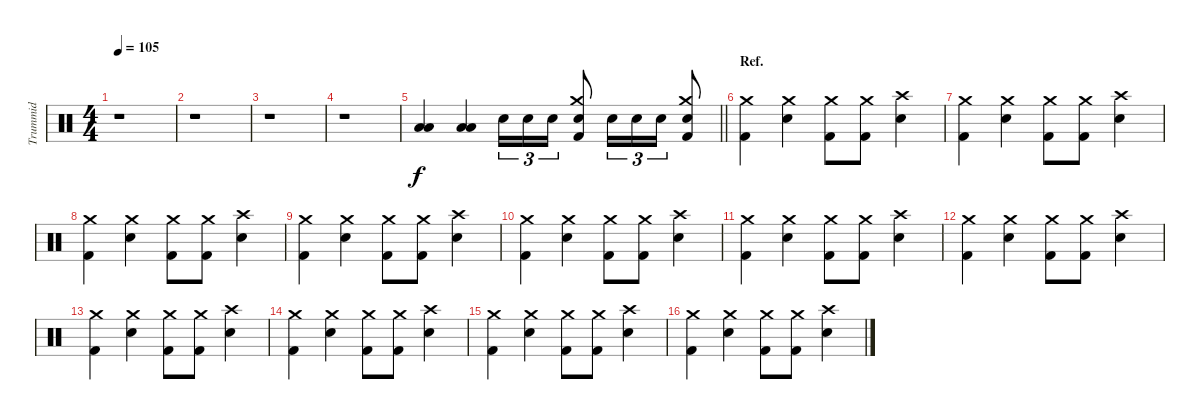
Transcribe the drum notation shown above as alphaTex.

\track ("Trummid" "Trummid") {instrument percussion}
\staff {score}
\articulation defaults
\ts (4 4)
\tempo 105
\clef neutral
\ks c
r.1{dy f} |
r.1 |
r.1 |
r.1 |
\barLineRight lightlight
("Low Tom (hit)" "Low Floor Tom (hit)").4 ("Low Tom (hit)" "Low Floor Tom (hit)").4 "Electric Snare (hit)".16{tu (3 2)} "Electric Snare (hit)".16{tu (3 2)} "Electric Snare (hit)".16{tu (3 2)} ("Crash medium (hit)" "Electric Snare (hit)" "Kick (hit) 2").8 "Electric Snare (hit)".16{tu (3 2)} "Electric Snare (hit)".16{tu (3 2)} "Electric Snare (hit)".16{tu (3 2)} ("Crash medium (hit)" "Electric Snare (hit)" "Kick (hit) 2").8 |
\section ("" "Ref.")
("Crash medium (hit)" "Kick (hit) 2").4 ("Crash medium (hit)" "Electric Snare (hit)").4 ("Crash medium (hit)" "Kick (hit) 2").8 ("Crash medium (hit)" "Kick (hit) 2").8 ("Crash high (hit)" "Electric Snare (hit)").4 |
("Crash medium (hit)" "Kick (hit) 2").4 ("Crash medium (hit)" "Electric Snare (hit)").4 ("Crash medium (hit)" "Kick (hit) 2").8 ("Crash medium (hit)" "Kick (hit) 2").8 ("Crash high (hit)" "Electric Snare (hit)").4 |
("Crash medium (hit)" "Kick (hit) 2").4 ("Crash medium (hit)" "Electric Snare (hit)").4 ("Crash medium (hit)" "Kick (hit) 2").8 ("Crash medium (hit)" "Kick (hit) 2").8 ("Crash high (hit)" "Electric Snare (hit)").4 |
("Crash medium (hit)" "Kick (hit) 2").4 ("Crash medium (hit)" "Electric Snare (hit)").4 ("Crash medium (hit)" "Kick (hit) 2").8 ("Crash medium (hit)" "Kick (hit) 2").8 ("Crash high (hit)" "Electric Snare (hit)").4 |
("Crash medium (hit)" "Kick (hit) 2").4 ("Crash medium (hit)" "Electric Snare (hit)").4 ("Crash medium (hit)" "Kick (hit) 2").8 ("Crash medium (hit)" "Kick (hit) 2").8 ("Crash high (hit)" "Electric Snare (hit)").4 |
("Crash medium (hit)" "Kick (hit) 2").4 ("Crash medium (hit)" "Electric Snare (hit)").4 ("Crash medium (hit)" "Kick (hit) 2").8 ("Crash medium (hit)" "Kick (hit) 2").8 ("Crash high (hit)" "Electric Snare (hit)").4 |
("Crash medium (hit)" "Kick (hit) 2").4 ("Crash medium (hit)" "Electric Snare (hit)").4 ("Crash medium (hit)" "Kick (hit) 2").8 ("Crash medium (hit)" "Kick (hit) 2").8 ("Crash high (hit)" "Electric Snare (hit)").4 |
("Crash medium (hit)" "Kick (hit) 2").4 ("Crash medium (hit)" "Electric Snare (hit)").4 ("Crash medium (hit)" "Kick (hit) 2").8 ("Crash medium (hit)" "Kick (hit) 2").8 ("Crash high (hit)" "Electric Snare (hit)").4 |
("Crash medium (hit)" "Kick (hit) 2").4 ("Crash medium (hit)" "Electric Snare (hit)").4 ("Crash medium (hit)" "Kick (hit) 2").8 ("Crash medium (hit)" "Kick (hit) 2").8 ("Crash high (hit)" "Electric Snare (hit)").4 |
("Crash medium (hit)" "Kick (hit) 2").4 ("Crash medium (hit)" "Electric Snare (hit)").4 ("Crash medium (hit)" "Kick (hit) 2").8 ("Crash medium (hit)" "Kick (hit) 2").8 ("Crash high (hit)" "Electric Snare (hit)").4 |
("Crash medium (hit)" "Kick (hit) 2").4 ("Crash medium (hit)" "Electric Snare (hit)").4 ("Crash medium (hit)" "Kick (hit) 2").8 ("Crash medium (hit)" "Kick (hit) 2").8 ("Crash high (hit)" "Electric Snare (hit)").4
